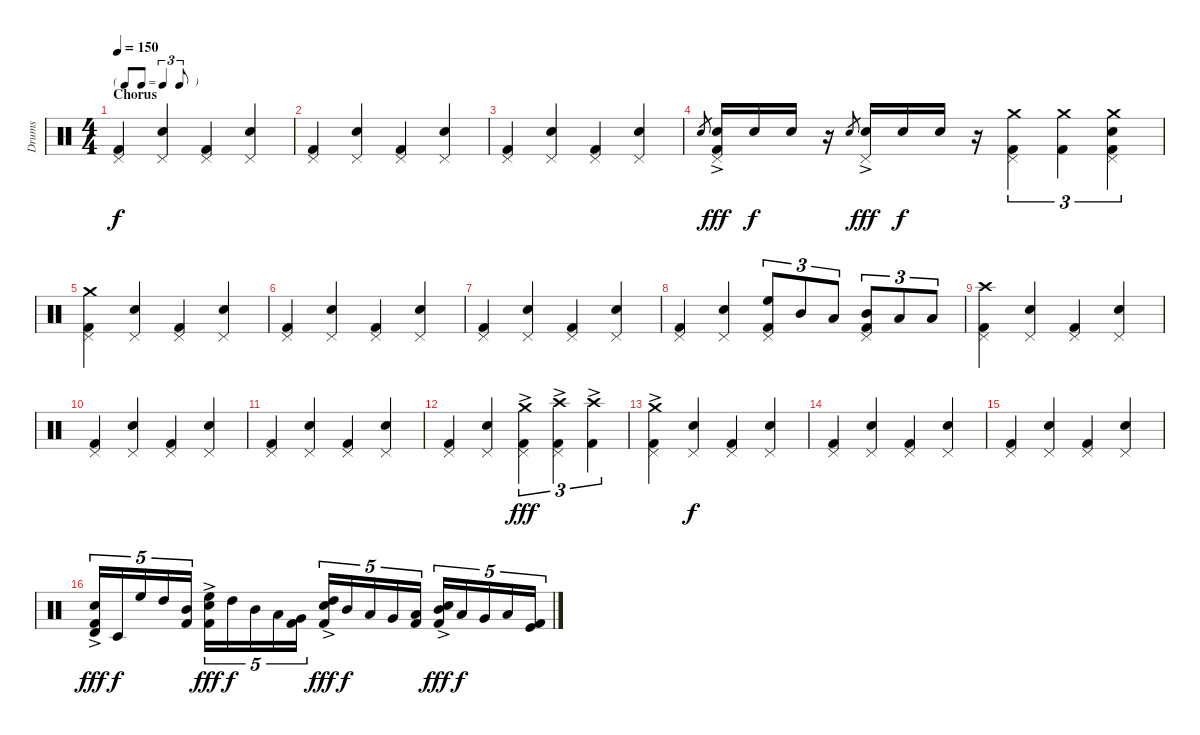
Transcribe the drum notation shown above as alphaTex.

\track ("Drums" "Drums") {instrument percussion}
\staff {score}
\articulation defaults
\ts (4 4)
\tf triplet8th
\section ("" "Chorus")
\tempo 150
\clef neutral
\ks c
("Pedal Hi-Hat (hit)" "Kick (hit) 2").4{dy f} ("Pedal Hi-Hat (hit)" "Snare (hit) 2").4 ("Pedal Hi-Hat (hit)" "Kick (hit) 2").4 ("Pedal Hi-Hat (hit)" "Snare (hit) 2").4 |
("Pedal Hi-Hat (hit)" "Kick (hit) 2").4 ("Pedal Hi-Hat (hit)" "Snare (hit) 2").4 ("Pedal Hi-Hat (hit)" "Kick (hit) 2").4 ("Pedal Hi-Hat (hit)" "Snare (hit) 2").4 |
("Pedal Hi-Hat (hit)" "Kick (hit) 2").4 ("Pedal Hi-Hat (hit)" "Snare (hit) 2").4 ("Pedal Hi-Hat (hit)" "Kick (hit) 2").4 ("Pedal Hi-Hat (hit)" "Snare (hit) 2").4 |
"Electric Snare (hit)".8{gr} ("Pedal Hi-Hat (hit)" "Electric Snare (hit)"{ac} "Kick (hit) 2").16{dy fff} "Electric Snare (hit)".16{dy f} "Electric Snare (hit)".16 r.16 "Electric Snare (hit)".8{gr} ("Pedal Hi-Hat (hit)" "Electric Snare (hit)"{ac}).16{dy fff} "Electric Snare (hit)".16{dy f} "Electric Snare (hit)".16 r.16 ("Pedal Hi-Hat (hit)" "Crash medium (hit)" "Kick (hit) 2").4{tu (3 2)} ("Crash medium (hit)" "Kick (hit) 2").4{tu (3 2)} ("Pedal Hi-Hat (hit)" "Crash medium (hit)" "Snare (hit) 2" "Kick (hit) 2").4{tu (3 2)} |
("Pedal Hi-Hat (hit)" "Crash medium (hit)" "Kick (hit) 2").4 ("Pedal Hi-Hat (hit)" "Snare (hit) 2").4 ("Pedal Hi-Hat (hit)" "Kick (hit) 2").4 ("Pedal Hi-Hat (hit)" "Snare (hit) 2").4 |
("Pedal Hi-Hat (hit)" "Kick (hit) 2").4 ("Pedal Hi-Hat (hit)" "Snare (hit) 2").4 ("Pedal Hi-Hat (hit)" "Kick (hit) 2").4 ("Pedal Hi-Hat (hit)" "Snare (hit) 2").4 |
("Pedal Hi-Hat (hit)" "Kick (hit) 2").4 ("Pedal Hi-Hat (hit)" "Snare (hit) 2").4 ("Pedal Hi-Hat (hit)" "Kick (hit) 2").4 ("Pedal Hi-Hat (hit)" "Snare (hit) 2").4 |
("Pedal Hi-Hat (hit)" "Kick (hit) 2").4 ("Pedal Hi-Hat (hit)" "Snare (hit) 2").4 ("Pedal Hi-Hat (hit)" "High Floor Tom (hit)" "Kick (hit) 2").8{tu (3 2)} "Mid Tom (hit)".8{tu (3 2)} "Low Tom (hit)".8{tu (3 2)} ("Pedal Hi-Hat (hit)" "Mid Tom (hit)" "Kick (hit) 2").8{tu (3 2)} "Low Tom (hit)".8{tu (3 2)} "Low Floor Tom (hit)".8{tu (3 2)} |
("Pedal Hi-Hat (hit)" "Crash high (hit)" "Kick (hit) 2").4 ("Pedal Hi-Hat (hit)" "Snare (hit) 2").4 ("Pedal Hi-Hat (hit)" "Kick (hit) 2").4 ("Pedal Hi-Hat (hit)" "Snare (hit) 2").4 |
("Pedal Hi-Hat (hit)" "Kick (hit) 2").4 ("Pedal Hi-Hat (hit)" "Snare (hit) 2").4 ("Pedal Hi-Hat (hit)" "Kick (hit) 2").4 ("Pedal Hi-Hat (hit)" "Snare (hit) 2").4 |
("Pedal Hi-Hat (hit)" "Kick (hit) 2").4 ("Pedal Hi-Hat (hit)" "Snare (hit) 2").4 ("Pedal Hi-Hat (hit)" "Kick (hit) 2").4 ("Pedal Hi-Hat (hit)" "Snare (hit) 2").4 |
("Pedal Hi-Hat (hit)" "Kick (hit) 2").4 ("Pedal Hi-Hat (hit)" "Snare (hit) 2").4 ("Pedal Hi-Hat (hit)" "Crash medium (hit)"{ac} "Kick (hit) 2").4{tu (3 2) dy fff} ("Pedal Hi-Hat (hit)" "Crash high (hit)"{ac} "Kick (hit) 2").4{tu (3 2)} ("Crash high (hit)"{ac} "Kick (hit) 2").4{tu (3 2)} |
("Pedal Hi-Hat (hit)" "Crash medium (hit)"{ac} "Kick (hit) 2"{ac}).4 ("Pedal Hi-Hat (hit)" "Snare (hit) 2").4{dy f} ("Pedal Hi-Hat (hit)" "Kick (hit) 2").4 ("Pedal Hi-Hat (hit)" "Snare (hit) 2").4 |
("Pedal Hi-Hat (hit)" "Kick (hit) 2").4 ("Pedal Hi-Hat (hit)" "Snare (hit) 2").4 ("Pedal Hi-Hat (hit)" "Kick (hit) 2").4 ("Pedal Hi-Hat (hit)" "Snare (hit) 2").4 |
("Pedal Hi-Hat (hit)" "Kick (hit) 2").4 ("Pedal Hi-Hat (hit)" "Snare (hit) 2").4 ("Pedal Hi-Hat (hit)" "Kick (hit) 2").4 ("Pedal Hi-Hat (hit)" "Snare (hit) 2").4 |
("Timbale high (hit)"{ac} "Electric Snare (hit)" "Kick (hit) 2").16{tu (5 4) dy fff} "Timbale low (hit)".16{tu (5 4) dy f} "High Floor Tom (hit)".16{tu (5 4)} "High Tom (hit)".16{tu (5 4)} ("Mid Tom (hit)" "Kick (hit) 2").16{tu (5 4)} ("High Floor Tom (hit)"{ac} "Electric Snare (hit)" "Kick (hit) 2").16{tu (5 4) dy fff} "High Tom (hit)".16{tu (5 4) dy f} "Mid Tom (hit)".16{tu (5 4)} "Low Tom (hit)".16{tu (5 4)} ("Very Low Tom (hit)" "Kick (hit) 2").16{tu (5 4)} ("High Tom (hit)"{ac} "Electric Snare (hit)" "Kick (hit) 2").16{tu (5 4) dy fff} "Mid Tom (hit)".16{tu (5 4) dy f} "Low Tom (hit)".16{tu (5 4)} "Very Low Tom (hit)".16{tu (5 4)} ("Low Floor Tom (hit)" "Kick (hit) 2").16{tu (5 4)} ("Mid Tom (hit)"{ac} "Electric Snare (hit)" "Kick (hit) 2").16{tu (5 4) dy fff} "Low Tom (hit)".16{tu (5 4) dy f} "Very Low Tom (hit)".16{tu (5 4)} "Low Floor Tom (hit)".16{tu (5 4)} ("Kick (hit)" "Kick (hit) 2").16{tu (5 4)}
